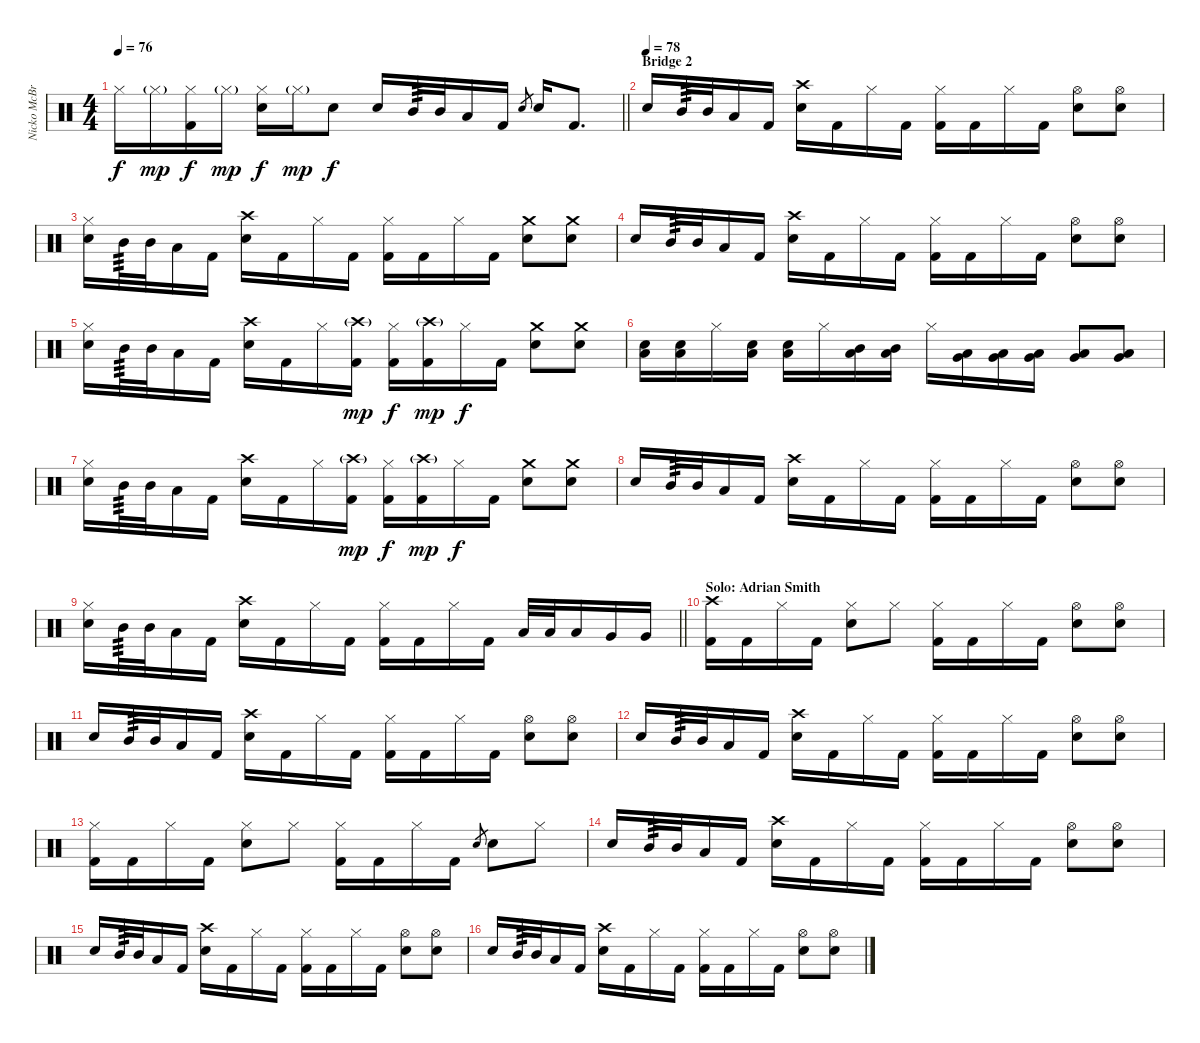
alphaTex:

\track ("Nicko McBrain" "Nicko McBr") {instrument percussion}
\staff {score}
\articulation defaults
\ts (4 4)
\tempo 76
\clef neutral
\barLineRight lightlight
\ks c "Hi-Hat (closed)".16{dy f} "Hi-Hat (closed)"{g}.16{dy mp}
("Hi-Hat (closed)" "Kick (hit) 2").16{dy f} "Hi-Hat (closed)"{g}.16{dy mp} ("Hi-Hat (closed)" "Electric Snare (hit)").16{dy f} "Hi-Hat (closed)"{g}.16{dy mp} "Electric Snare (hit)".8{dy f} "Electric Snare (hit)".16 "Mid Tom (hit)".32{tp 3} "Mid Tom (hit)".32 "Low Tom (hit)".16 "Kick (hit) 2".16 "Electric Snare (hit)".8{gr} "Electric Snare (hit)".16 "Kick (hit) 2".8{d} |
\section ("" "Bridge 2")
\tempo (78)
"Electric Snare (hit)".16{volume 13} "Mid Tom (hit)".32{tp 3} "Mid Tom (hit)".32 "Low Tom (hit)".16 "Kick (hit) 2".16 ("Crash high (hit)" "Electric Snare (hit)").16 "Kick (hit) 2".16 "Hi-Hat (closed)".16 "Kick (hit) 2".16 ("Hi-Hat (closed)" "Kick (hit) 2").16 "Kick (hit) 2".16 "Hi-Hat (closed)".16 "Kick (hit) 2".16 ("Hi-Hat (open)" "Electric Snare (hit)").8 ("Hi-Hat (open)" "Electric Snare (hit)").8 |
("Hi-Hat (closed)" "Electric Snare (hit)").16 "Mid Tom (hit)".32{tp 3} "Mid Tom (hit)".32 "Low Tom (hit)".16 "Kick (hit) 2".16 ("Crash high (hit)" "Electric Snare (hit)").16 "Kick (hit) 2".16 "Hi-Hat (closed)".16 "Kick (hit) 2".16 ("Hi-Hat (closed)" "Kick (hit) 2").16 "Kick (hit) 2".16 "Hi-Hat (closed)".16 "Kick (hit) 2".16 ("Crash medium (hit)" "Electric Snare (hit)").8 ("Crash medium (hit)" "Electric Snare (hit)").8 |
"Electric Snare (hit)".16 "Mid Tom (hit)".32{tp 3} "Mid Tom (hit)".32 "Low Tom (hit)".16 "Kick (hit) 2".16 ("Crash high (hit)" "Electric Snare (hit)").16 "Kick (hit) 2".16 "Hi-Hat (closed)".16 "Kick (hit) 2".16 ("Hi-Hat (closed)" "Kick (hit) 2").16 "Kick (hit) 2".16 "Hi-Hat (closed)".16 "Kick (hit) 2".16 ("Hi-Hat (open)" "Electric Snare (hit)").8 ("Hi-Hat (open)" "Electric Snare (hit)").8 |
("Hi-Hat (closed)" "Electric Snare (hit)").16 "Mid Tom (hit)".32{tp 3} "Mid Tom (hit)".32 "Low Tom (hit)".16 "Kick (hit) 2".16 ("Crash high (hit)" "Electric Snare (hit)").16 "Kick (hit) 2".16 "Hi-Hat (closed)".16 ("Crash high (hit)"{g} "Kick (hit) 2").16{dy mp} ("Hi-Hat (closed)" "Kick (hit) 2").16{dy f} ("Crash high (hit)"{g} "Kick (hit) 2").16{dy mp} "Hi-Hat (closed)".16{dy f} "Kick (hit) 2".16 ("Crash medium (hit)" "Electric Snare (hit)").8 ("Crash medium (hit)" "Electric Snare (hit)").8 |
("Low Tom (hit)" "Electric Snare (hit)").16 ("Low Tom (hit)" "Electric Snare (hit)").16 "Hi-Hat (closed)".16 ("Low Tom (hit)" "Electric Snare (hit)").16 ("Low Tom (hit)" "Electric Snare (hit)").16 "Hi-Hat (closed)".16 ("Mid Tom (hit)" "Low Tom (hit)").16 ("Mid Tom (hit)" "Low Tom (hit)").16 "Hi-Hat (closed)".16 ("Low Tom (hit)" "Very Low Tom (hit)").16 ("Low Tom (hit)" "Very Low Tom (hit)").16 ("Low Tom (hit)" "Very Low Tom (hit)").16 ("Very Low Tom (hit)" "Low Floor Tom (hit)").8 ("Very Low Tom (hit)" "Low Floor Tom (hit)").8 |
("Hi-Hat (closed)" "Electric Snare (hit)").16 "Mid Tom (hit)".32{tp 3} "Mid Tom (hit)".32 "Low Tom (hit)".16 "Kick (hit) 2".16 ("Crash high (hit)" "Electric Snare (hit)").16 "Kick (hit) 2".16 "Hi-Hat (closed)".16 ("Crash high (hit)"{g} "Kick (hit) 2").16{dy mp} ("Hi-Hat (closed)" "Kick (hit) 2").16{dy f} ("Crash high (hit)"{g} "Kick (hit) 2").16{dy mp} "Hi-Hat (closed)".16{dy f} "Kick (hit) 2".16 ("Crash medium (hit)" "Electric Snare (hit)").8 ("Crash medium (hit)" "Electric Snare (hit)").8 |
"Electric Snare (hit)".16 "Mid Tom (hit)".32{tp 3} "Mid Tom (hit)".32 "Low Tom (hit)".16 "Kick (hit) 2".16 ("Crash high (hit)" "Electric Snare (hit)").16 "Kick (hit) 2".16 "Hi-Hat (closed)".16 "Kick (hit) 2".16 ("Hi-Hat (closed)" "Kick (hit) 2").16 "Kick (hit) 2".16 "Hi-Hat (closed)".16 "Kick (hit) 2".16 ("Hi-Hat (open)" "Electric Snare (hit)").8 ("Hi-Hat (open)" "Electric Snare (hit)").8 |
\barLineRight lightlight
("Hi-Hat (closed)" "Electric Snare (hit)").16 "Mid Tom (hit)".32{tp 3} "Mid Tom (hit)".32 "Low Tom (hit)".16 "Kick (hit) 2".16 ("Crash high (hit)" "Electric Snare (hit)").16 "Kick (hit) 2".16 "Hi-Hat (closed)".16 "Kick (hit) 2".16 ("Hi-Hat (closed)" "Kick (hit) 2").16 "Kick (hit) 2".16 "Hi-Hat (closed)".16 "Kick (hit) 2".16 "Low Tom (hit)".32 "Low Tom (hit)".32 "Low Tom (hit)".16 "Very Low Tom (hit)".16 "Very Low Tom (hit)".16 |
\section ("" "Solo: Adrian Smith")
("Crash high (hit)" "Kick (hit) 2").16 "Kick (hit) 2".16 "Hi-Hat (closed)".16 "Kick (hit) 2".16 ("Hi-Hat (closed)" "Electric Snare (hit)").8 "Hi-Hat (closed)".8 ("Hi-Hat (closed)" "Kick (hit) 2").16 "Kick (hit) 2".16 "Hi-Hat (closed)".16 "Kick (hit) 2".16 ("Hi-Hat (open)" "Electric Snare (hit)").8 ("Hi-Hat (open)" "Electric Snare (hit)").8 |
"Electric Snare (hit)".16 "Mid Tom (hit)".32{tp 3} "Mid Tom (hit)".32 "Low Tom (hit)".16 "Kick (hit) 2".16 ("Crash high (hit)" "Electric Snare (hit)").16 "Kick (hit) 2".16 "Hi-Hat (closed)".16 "Kick (hit) 2".16 ("Hi-Hat (closed)" "Kick (hit) 2").16 "Kick (hit) 2".16 "Hi-Hat (closed)".16 "Kick (hit) 2".16 ("Hi-Hat (open)" "Electric Snare (hit)").8 ("Hi-Hat (open)" "Electric Snare (hit)").8 |
"Electric Snare (hit)".16 "Mid Tom (hit)".32{tp 3} "Mid Tom (hit)".32 "Low Tom (hit)".16 "Kick (hit) 2".16 ("Crash high (hit)" "Electric Snare (hit)").16 "Kick (hit) 2".16 "Hi-Hat (closed)".16 "Kick (hit) 2".16 ("Hi-Hat (closed)" "Kick (hit) 2").16 "Kick (hit) 2".16 "Hi-Hat (closed)".16 "Kick (hit) 2".16 ("Hi-Hat (open)" "Electric Snare (hit)").8 ("Hi-Hat (open)" "Electric Snare (hit)").8 |
("Hi-Hat (closed)" "Kick (hit) 2").16 "Kick (hit) 2".16 "Hi-Hat (closed)".16 "Kick (hit) 2".16 ("Hi-Hat (closed)" "Electric Snare (hit)").8 "Hi-Hat (closed)".8 ("Hi-Hat (closed)" "Kick (hit) 2").16 "Kick (hit) 2".16 "Hi-Hat (closed)".16 "Kick (hit) 2".16 "Electric Snare (hit)".8{gr} "Electric Snare (hit)".8 "Hi-Hat (closed)".8 |
"Electric Snare (hit)".16 "Mid Tom (hit)".32{tp 3} "Mid Tom (hit)".32 "Low Tom (hit)".16 "Kick (hit) 2".16 ("Crash high (hit)" "Electric Snare (hit)").16 "Kick (hit) 2".16 "Hi-Hat (closed)".16 "Kick (hit) 2".16 ("Hi-Hat (closed)" "Kick (hit) 2").16 "Kick (hit) 2".16 "Hi-Hat (closed)".16 "Kick (hit) 2".16 ("Hi-Hat (open)" "Electric Snare (hit)").8 ("Hi-Hat (open)" "Electric Snare (hit)").8 |
"Electric Snare (hit)".16 "Mid Tom (hit)".32{tp 3} "Mid Tom (hit)".32 "Low Tom (hit)".16 "Kick (hit) 2".16 ("Crash high (hit)" "Electric Snare (hit)").16 "Kick (hit) 2".16 "Hi-Hat (closed)".16 "Kick (hit) 2".16 ("Hi-Hat (closed)" "Kick (hit) 2").16 "Kick (hit) 2".16 "Hi-Hat (closed)".16 "Kick (hit) 2".16 ("Hi-Hat (open)" "Electric Snare (hit)").8 ("Hi-Hat (open)" "Electric Snare (hit)").8 |
"Electric Snare (hit)".16 "Mid Tom (hit)".32{tp 3} "Mid Tom (hit)".32 "Low Tom (hit)".16 "Kick (hit) 2".16 ("Crash high (hit)" "Electric Snare (hit)").16 "Kick (hit) 2".16 "Hi-Hat (closed)".16 "Kick (hit) 2".16 ("Hi-Hat (closed)" "Kick (hit) 2").16 "Kick (hit) 2".16 "Hi-Hat (closed)".16 "Kick (hit) 2".16 ("Hi-Hat (open)" "Electric Snare (hit)").8 ("Hi-Hat (open)" "Electric Snare (hit)").8
